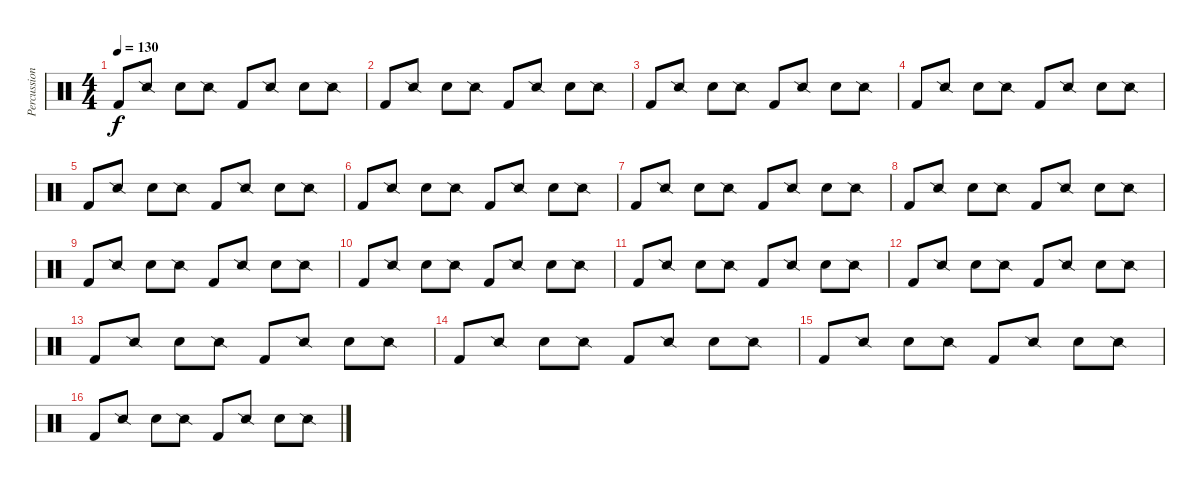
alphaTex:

\track ("Percussion" "Percussion") {instrument percussion}
\staff {score}
\articulation defaults
\ts (4 4)
\tempo 130
\clef neutral
\ks c "Kick (hit) 2".8{dy f} "Snare (side stick) 2".8 "Snare (hit) 2".8 "Snare (side stick) 2".8 "Kick (hit) 2".8 "Snare (side stick) 2".8 "Snare (hit) 2".8 "Snare (side stick) 2".8
|
"Kick (hit) 2".8 "Snare (side stick) 2".8 "Snare (hit) 2".8 "Snare (side stick) 2".8 "Kick (hit) 2".8 "Snare (side stick) 2".8 "Snare (hit) 2".8 "Snare (side stick) 2".8 |
"Kick (hit) 2".8 "Snare (side stick) 2".8 "Snare (hit) 2".8 "Snare (side stick) 2".8 "Kick (hit) 2".8 "Snare (side stick) 2".8 "Snare (hit) 2".8 "Snare (side stick) 2".8 |
"Kick (hit) 2".8 "Snare (side stick) 2".8 "Snare (hit) 2".8 "Snare (side stick) 2".8 "Kick (hit) 2".8 "Snare (side stick) 2".8 "Snare (hit) 2".8 "Snare (side stick) 2".8 |
"Kick (hit) 2".8 "Snare (side stick) 2".8 "Snare (hit) 2".8 "Snare (side stick) 2".8 "Kick (hit) 2".8 "Snare (side stick) 2".8 "Snare (hit) 2".8 "Snare (side stick) 2".8 |
"Kick (hit) 2".8 "Snare (side stick) 2".8 "Snare (hit) 2".8 "Snare (side stick) 2".8 "Kick (hit) 2".8 "Snare (side stick) 2".8 "Snare (hit) 2".8 "Snare (side stick) 2".8 |
"Kick (hit) 2".8 "Snare (side stick) 2".8 "Snare (hit) 2".8 "Snare (side stick) 2".8 "Kick (hit) 2".8 "Snare (side stick) 2".8 "Snare (hit) 2".8 "Snare (side stick) 2".8 |
"Kick (hit) 2".8 "Snare (side stick) 2".8 "Snare (hit) 2".8 "Snare (side stick) 2".8 "Kick (hit) 2".8 "Snare (side stick) 2".8 "Snare (hit) 2".8 "Snare (side stick) 2".8 |
"Kick (hit) 2".8 "Snare (side stick) 2".8 "Snare (hit) 2".8 "Snare (side stick) 2".8 "Kick (hit) 2".8 "Snare (side stick) 2".8 "Snare (hit) 2".8 "Snare (side stick) 2".8 |
"Kick (hit) 2".8 "Snare (side stick) 2".8 "Snare (hit) 2".8 "Snare (side stick) 2".8 "Kick (hit) 2".8 "Snare (side stick) 2".8 "Snare (hit) 2".8 "Snare (side stick) 2".8 |
"Kick (hit) 2".8 "Snare (side stick) 2".8 "Snare (hit) 2".8 "Snare (side stick) 2".8 "Kick (hit) 2".8 "Snare (side stick) 2".8 "Snare (hit) 2".8 "Snare (side stick) 2".8 |
"Kick (hit) 2".8 "Snare (side stick) 2".8 "Snare (hit) 2".8 "Snare (side stick) 2".8 "Kick (hit) 2".8 "Snare (side stick) 2".8 "Snare (hit) 2".8 "Snare (side stick) 2".8 |
"Kick (hit) 2".8 "Snare (side stick) 2".8 "Snare (hit) 2".8 "Snare (side stick) 2".8 "Kick (hit) 2".8 "Snare (side stick) 2".8 "Snare (hit) 2".8 "Snare (side stick) 2".8 |
"Kick (hit) 2".8 "Snare (side stick) 2".8 "Snare (hit) 2".8 "Snare (side stick) 2".8 "Kick (hit) 2".8 "Snare (side stick) 2".8 "Snare (hit) 2".8 "Snare (side stick) 2".8 |
"Kick (hit) 2".8 "Snare (side stick) 2".8 "Snare (hit) 2".8 "Snare (side stick) 2".8 "Kick (hit) 2".8 "Snare (side stick) 2".8 "Snare (hit) 2".8 "Snare (side stick) 2".8 |
"Kick (hit) 2".8 "Snare (side stick) 2".8 "Snare (hit) 2".8 "Snare (side stick) 2".8 "Kick (hit) 2".8 "Snare (side stick) 2".8 "Snare (hit) 2".8 "Snare (side stick) 2".8
